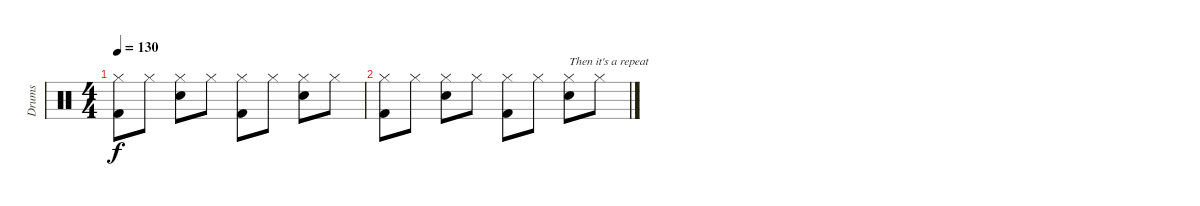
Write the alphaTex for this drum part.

\track ("Drums" "Drums") {instrument percussion}
\staff {score}
\articulation defaults
\ts (4 4)
\tempo 130
\clef neutral
\ks c
("Hi-Hat (closed)" "Kick (hit) 2").8{dy f} "Hi-Hat (closed)".8 ("Hi-Hat (closed)" "Snare (hit) 2").8 "Hi-Hat (closed)".8 ("Hi-Hat (closed)" "Kick (hit) 2").8 "Hi-Hat (closed)".8 ("Hi-Hat (closed)" "Snare (hit) 2").8 "Hi-Hat (closed)".8 |
("Hi-Hat (closed)" "Kick (hit) 2").8 "Hi-Hat (closed)".8 ("Hi-Hat (closed)" "Snare (hit) 2").8 "Hi-Hat (closed)".8 ("Hi-Hat (closed)" "Kick (hit) 2").8 "Hi-Hat (closed)".8 ("Hi-Hat (closed)" "Snare (hit) 2").8{txt "Then it's a repeat"} "Hi-Hat (closed)".8
